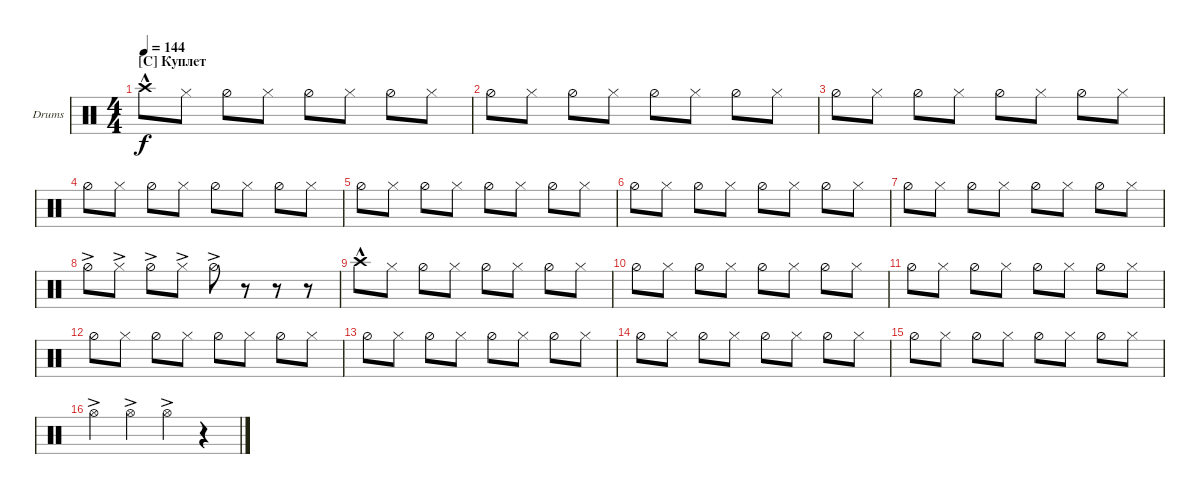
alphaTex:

\defaultSystemsLayout 4
\bracketExtendMode groupsimilarinstruments
\firstSystemTrackNameOrientation horizontal
\otherSystemsTrackNameOrientation horizontal
\track ("Cymbals" "Drums") {instrument percussion}
\staff {score}
\articulation defaults
\ts (4 4)
\section ("C" "Куплет")
\tempo 144
\clef neutral
\ks c "Crash high (hit)"{hac}.8{dy f} "Hi-Hat (closed)".8 "Hi-Hat (half)".8 "Hi-Hat (closed)".8 "Hi-Hat (half)".8 "Hi-Hat (closed)".8 "Hi-Hat (half)".8 "Hi-Hat (closed)".8
|
"Hi-Hat (half)".8 "Hi-Hat (closed)".8 "Hi-Hat (half)".8 "Hi-Hat (closed)".8 "Hi-Hat (half)".8 "Hi-Hat (closed)".8 "Hi-Hat (half)".8 "Hi-Hat (closed)".8 |
"Hi-Hat (half)".8 "Hi-Hat (closed)".8 "Hi-Hat (half)".8 "Hi-Hat (closed)".8 "Hi-Hat (half)".8 "Hi-Hat (closed)".8 "Hi-Hat (half)".8 "Hi-Hat (closed)".8 |
"Hi-Hat (half)".8 "Hi-Hat (closed)".8 "Hi-Hat (half)".8 "Hi-Hat (closed)".8 "Hi-Hat (half)".8 "Hi-Hat (closed)".8 "Hi-Hat (half)".8 "Hi-Hat (closed)".8 |
"Hi-Hat (half)".8 "Hi-Hat (closed)".8 "Hi-Hat (half)".8 "Hi-Hat (closed)".8 "Hi-Hat (half)".8 "Hi-Hat (closed)".8 "Hi-Hat (half)".8 "Hi-Hat (closed)".8 |
"Hi-Hat (half)".8 "Hi-Hat (closed)".8 "Hi-Hat (half)".8 "Hi-Hat (closed)".8 "Hi-Hat (half)".8 "Hi-Hat (closed)".8 "Hi-Hat (half)".8 "Hi-Hat (closed)".8 |
"Hi-Hat (half)".8 "Hi-Hat (closed)".8 "Hi-Hat (half)".8 "Hi-Hat (closed)".8 "Hi-Hat (half)".8 "Hi-Hat (closed)".8 "Hi-Hat (half)".8 "Hi-Hat (closed)".8 |
"Hi-Hat (half)"{ac}.8 "Hi-Hat (closed)"{ac}.8 "Hi-Hat (half)"{ac}.8 "Hi-Hat (closed)"{ac}.8 "Hi-Hat (half)"{ac}.8 r.8 r.8 r.8 |
"Crash high (hit)"{hac}.8 "Hi-Hat (closed)".8 "Hi-Hat (half)".8 "Hi-Hat (closed)".8 "Hi-Hat (half)".8 "Hi-Hat (closed)".8 "Hi-Hat (half)".8 "Hi-Hat (closed)".8 |
"Hi-Hat (half)".8 "Hi-Hat (closed)".8 "Hi-Hat (half)".8 "Hi-Hat (closed)".8 "Hi-Hat (half)".8 "Hi-Hat (closed)".8 "Hi-Hat (half)".8 "Hi-Hat (closed)".8 |
"Hi-Hat (half)".8 "Hi-Hat (closed)".8 "Hi-Hat (half)".8 "Hi-Hat (closed)".8 "Hi-Hat (half)".8 "Hi-Hat (closed)".8 "Hi-Hat (half)".8 "Hi-Hat (closed)".8 |
"Hi-Hat (half)".8 "Hi-Hat (closed)".8 "Hi-Hat (half)".8 "Hi-Hat (closed)".8 "Hi-Hat (half)".8 "Hi-Hat (closed)".8 "Hi-Hat (half)".8 "Hi-Hat (closed)".8 |
"Hi-Hat (half)".8 "Hi-Hat (closed)".8 "Hi-Hat (half)".8 "Hi-Hat (closed)".8 "Hi-Hat (half)".8 "Hi-Hat (closed)".8 "Hi-Hat (half)".8 "Hi-Hat (closed)".8 |
"Hi-Hat (half)".8 "Hi-Hat (closed)".8 "Hi-Hat (half)".8 "Hi-Hat (closed)".8 "Hi-Hat (half)".8 "Hi-Hat (closed)".8 "Hi-Hat (half)".8 "Hi-Hat (closed)".8 |
"Hi-Hat (half)".8 "Hi-Hat (closed)".8 "Hi-Hat (half)".8 "Hi-Hat (closed)".8 "Hi-Hat (half)".8 "Hi-Hat (closed)".8 "Hi-Hat (half)".8 "Hi-Hat (closed)".8 |
"Hi-Hat (open)"{ac}.4 "Hi-Hat (open)"{ac}.4 "Hi-Hat (open)"{ac}.4 r.4
